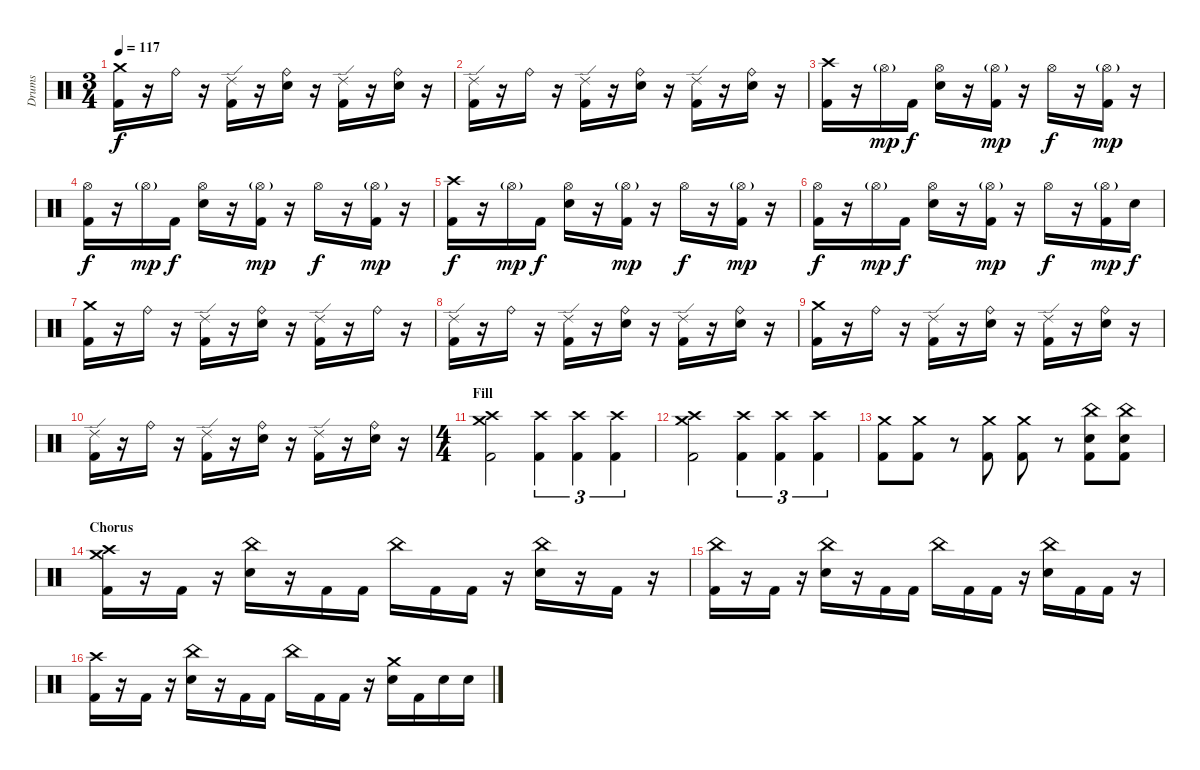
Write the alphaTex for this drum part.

\track ("Drums" "Drums") {instrument percussion}
\staff {score}
\articulation defaults
\ts (3 4)
\tempo 117
\clef neutral
\ks c
("Crash medium (hit)" "Kick (hit) 2").16{dy f} r.16 "Ride (bell)".16 r.16 ("Ride (edge) 2" "Kick (hit) 2").16 r.16 ("Ride (bell)" "Electric Snare (hit)").16 r.16 ("Ride (edge) 2" "Kick (hit) 2").16 r.16 ("Ride (bell)" "Electric Snare (hit)").16 r.16 |
("Ride (edge) 2" "Kick (hit) 2").16 r.16 "Ride (bell)".16 r.16 ("Ride (edge) 2" "Kick (hit) 2").16 r.16 ("Ride (bell)" "Electric Snare (hit)").16 r.16 ("Ride (edge) 2" "Kick (hit) 2").16 r.16 ("Ride (bell)" "Electric Snare (hit)").16 r.16 |
("Crash high (hit)" "Kick (hit) 2").16 r.16 "Hi-Hat (open)"{g}.16{dy mp} "Kick (hit) 2".16{dy f} ("Hi-Hat (open)" "Electric Snare (hit)").16 r.16 ("Hi-Hat (open)"{g} "Kick (hit) 2").16{dy mp} r.16 "Hi-Hat (open)".16{dy f} r.16 ("Hi-Hat (open)"{g} "Kick (hit) 2").16{dy mp} r.16 |
("Hi-Hat (open)" "Kick (hit) 2").16{dy f} r.16 "Hi-Hat (open)"{g}.16{dy mp} "Kick (hit) 2".16{dy f} ("Hi-Hat (open)" "Electric Snare (hit)").16 r.16 ("Hi-Hat (open)"{g} "Kick (hit) 2").16{dy mp} r.16 "Hi-Hat (open)".16{dy f} r.16 ("Hi-Hat (open)"{g} "Kick (hit) 2").16{dy mp} r.16 |
("Crash high (hit)" "Kick (hit) 2").16{dy f} r.16 "Hi-Hat (open)"{g}.16{dy mp} "Kick (hit) 2".16{dy f} ("Hi-Hat (open)" "Electric Snare (hit)").16 r.16 ("Hi-Hat (open)"{g} "Kick (hit) 2").16{dy mp} r.16 "Hi-Hat (open)".16{dy f} r.16 ("Hi-Hat (open)"{g} "Kick (hit) 2").16{dy mp} r.16 |
("Hi-Hat (open)" "Kick (hit) 2").16{dy f} r.16 "Hi-Hat (open)"{g}.16{dy mp} "Kick (hit) 2".16{dy f} ("Hi-Hat (open)" "Electric Snare (hit)").16 r.16 ("Hi-Hat (open)"{g} "Kick (hit) 2").16{dy mp} r.16 "Hi-Hat (open)".16{dy f} r.16 ("Hi-Hat (open)"{g} "Kick (hit) 2").16{dy mp} "Electric Snare (hit)".16{dy f} |
("Crash medium (hit)" "Kick (hit) 2").16 r.16 "Ride (bell)".16 r.16 ("Ride (edge) 2" "Kick (hit) 2").16 r.16 ("Ride (bell)" "Electric Snare (hit)").16 r.16 ("Ride (edge) 2" "Kick (hit) 2").16 r.16 "Ride (bell)".16 r.16 |
("Ride (edge) 2" "Kick (hit) 2").16 r.16 "Ride (bell)".16 r.16 ("Ride (edge) 2" "Kick (hit) 2").16 r.16 ("Ride (bell)" "Electric Snare (hit)").16 r.16 ("Ride (edge) 2" "Kick (hit) 2").16 r.16 ("Ride (bell)" "Electric Snare (hit)").16 r.16 |
("Crash medium (hit)" "Kick (hit) 2").16 r.16 "Ride (bell)".16 r.16 ("Ride (edge) 2" "Kick (hit) 2").16 r.16 ("Ride (bell)" "Electric Snare (hit)").16 r.16 ("Ride (edge) 2" "Kick (hit) 2").16 r.16 ("Ride (bell)" "Electric Snare (hit)").16 r.16 |
("Ride (edge) 2" "Kick (hit) 2").16 r.16 "Ride (bell)".16 r.16 ("Ride (edge) 2" "Kick (hit) 2").16 r.16 ("Ride (bell)" "Electric Snare (hit)").16 r.16 ("Ride (edge) 2" "Kick (hit) 2").16 r.16 ("Ride (bell)" "Electric Snare (hit)").16 r.16 |
\ts (4 4)
\section ("" "Fill")
("Crash high (hit)" "Crash medium (hit)" "Kick (hit) 2").2 ("Crash high (hit)" "Kick (hit) 2").4{tu (3 2)} ("Crash high (hit)" "Kick (hit) 2").4{tu (3 2)} ("Crash high (hit)" "Kick (hit) 2").4{tu (3 2)} |
("Crash high (hit)" "Crash medium (hit)" "Kick (hit) 2").2 ("Crash high (hit)" "Kick (hit) 2").4{tu (3 2)} ("Crash high (hit)" "Kick (hit) 2").4{tu (3 2)} ("Crash high (hit)" "Kick (hit) 2").4{tu (3 2)} |
("Crash medium (hit)" "Kick (hit) 2").8 ("Crash medium (hit)" "Kick (hit) 2").8 r.8 ("Crash medium (hit)" "Kick (hit) 2").8 ("Crash medium (hit)" "Kick (hit) 2").8 r.8 ("China (hit)" "Electric Snare (hit)" "Kick (hit) 2").8 ("China (hit)" "Electric Snare (hit)" "Kick (hit) 2").8 |
\section ("" "Chorus")
("Crash medium (hit)" "Crash high (hit)" "Kick (hit) 2").16 r.16 "Kick (hit) 2".16 r.16 ("China (hit)" "Electric Snare (hit)").16 r.16 "Kick (hit) 2".16 "Kick (hit) 2".16 "China (hit)".16 "Kick (hit) 2".16 "Kick (hit) 2".16 r.16 ("China (hit)" "Electric Snare (hit)").16 r.16 "Kick (hit) 2".16 r.16 |
("China (hit)" "Kick (hit) 2").16 r.16 "Kick (hit) 2".16 r.16 ("China (hit)" "Electric Snare (hit)").16 r.16 "Kick (hit) 2".16 "Kick (hit) 2".16 "China (hit)".16 "Kick (hit) 2".16 "Kick (hit) 2".16 r.16 ("China (hit)" "Electric Snare (hit)").16 "Kick (hit) 2".16 "Kick (hit) 2".16 r.16 |
("Crash high (hit)" "Kick (hit) 2").16 r.16 "Kick (hit) 2".16 r.16 ("China (hit)" "Electric Snare (hit)").16 r.16 "Kick (hit) 2".16 "Kick (hit) 2".16 "China (hit)".16 "Kick (hit) 2".16 "Kick (hit) 2".16 r.16 ("Crash medium (hit)" "Electric Snare (hit)").16 "Kick (hit) 2".16 "Electric Snare (hit)".16 "Electric Snare (hit)".16
